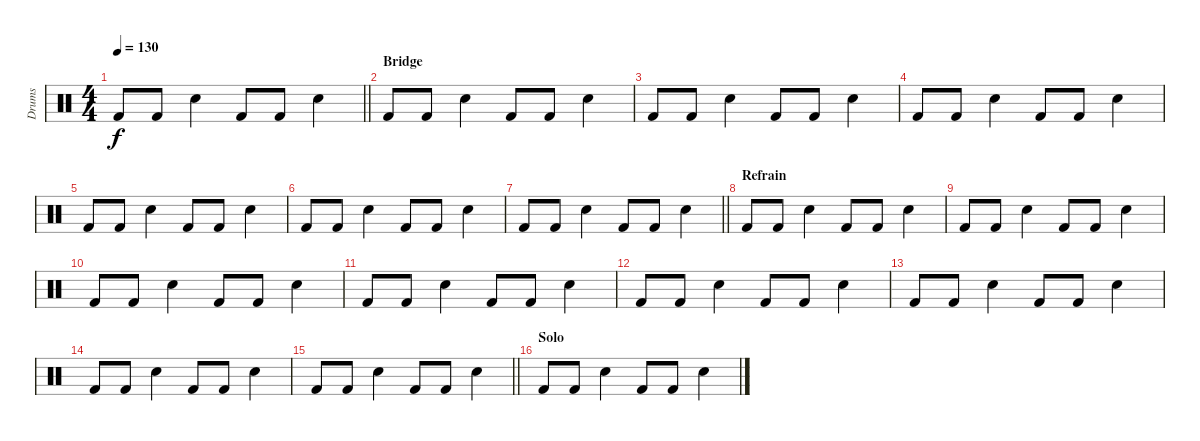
\track ("Drums" "Drums") {instrument percussion}
\staff {score}
\articulation defaults
\ts (4 4)
\tempo 130
\clef neutral
\barLineRight lightlight
\ks c "Kick (hit) 2".8{dy f} "Kick (hit) 2".8 "Snare (hit) 2".4 "Kick (hit) 2".8 "Kick (hit) 2".8 "Snare (hit) 2".4
|
\section ("" "Bridge")
"Kick (hit) 2".8 "Kick (hit) 2".8 "Snare (hit) 2".4 "Kick (hit) 2".8 "Kick (hit) 2".8 "Snare (hit) 2".4 |
"Kick (hit) 2".8 "Kick (hit) 2".8 "Snare (hit) 2".4 "Kick (hit) 2".8 "Kick (hit) 2".8 "Snare (hit) 2".4 |
"Kick (hit) 2".8 "Kick (hit) 2".8 "Snare (hit) 2".4 "Kick (hit) 2".8 "Kick (hit) 2".8 "Snare (hit) 2".4 |
"Kick (hit) 2".8 "Kick (hit) 2".8 "Snare (hit) 2".4 "Kick (hit) 2".8 "Kick (hit) 2".8 "Snare (hit) 2".4 |
"Kick (hit) 2".8 "Kick (hit) 2".8 "Snare (hit) 2".4 "Kick (hit) 2".8 "Kick (hit) 2".8 "Snare (hit) 2".4 |
\barLineRight lightlight "Kick (hit) 2".8 "Kick (hit) 2".8 "Snare (hit) 2".4 "Kick (hit) 2".8 "Kick (hit) 2".8 "Snare (hit) 2".4
|
\section ("" "Refrain")
"Kick (hit) 2".8 "Kick (hit) 2".8 "Snare (hit) 2".4 "Kick (hit) 2".8 "Kick (hit) 2".8 "Snare (hit) 2".4 |
"Kick (hit) 2".8 "Kick (hit) 2".8 "Snare (hit) 2".4 "Kick (hit) 2".8 "Kick (hit) 2".8 "Snare (hit) 2".4 |
"Kick (hit) 2".8 "Kick (hit) 2".8 "Snare (hit) 2".4 "Kick (hit) 2".8 "Kick (hit) 2".8 "Snare (hit) 2".4 |
"Kick (hit) 2".8 "Kick (hit) 2".8 "Snare (hit) 2".4 "Kick (hit) 2".8 "Kick (hit) 2".8 "Snare (hit) 2".4 |
"Kick (hit) 2".8 "Kick (hit) 2".8 "Snare (hit) 2".4 "Kick (hit) 2".8 "Kick (hit) 2".8 "Snare (hit) 2".4 |
"Kick (hit) 2".8 "Kick (hit) 2".8 "Snare (hit) 2".4 "Kick (hit) 2".8 "Kick (hit) 2".8 "Snare (hit) 2".4 |
"Kick (hit) 2".8 "Kick (hit) 2".8 "Snare (hit) 2".4 "Kick (hit) 2".8 "Kick (hit) 2".8 "Snare (hit) 2".4 |
\barLineRight lightlight "Kick (hit) 2".8 "Kick (hit) 2".8 "Snare (hit) 2".4 "Kick (hit) 2".8 "Kick (hit) 2".8 "Snare (hit) 2".4
|
\section ("" "Solo")
"Kick (hit) 2".8 "Kick (hit) 2".8 "Snare (hit) 2".4 "Kick (hit) 2".8 "Kick (hit) 2".8 "Snare (hit) 2".4
